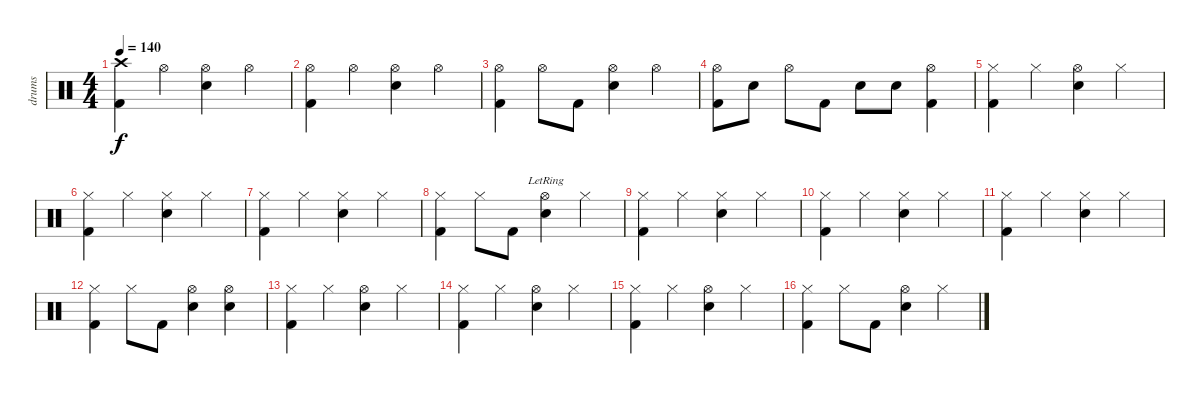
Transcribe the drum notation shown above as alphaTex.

\track ("drums" "drums") {instrument percussion}
\staff {score}
\articulation defaults
\ts (4 4)
\tempo 140
\clef neutral
\ks c
("Crash high (hit)" "Kick (hit) 2").4{dy f} "Hi-Hat (open)".4 ("Snare (hit) 2" "Hi-Hat (open)").4 "Hi-Hat (open)".4 |
("Hi-Hat (open)" "Kick (hit) 2").4 "Hi-Hat (open)".4 ("Snare (hit) 2" "Hi-Hat (open)").4 "Hi-Hat (open)".4 |
("Hi-Hat (open)" "Kick (hit) 2").4 "Hi-Hat (open)".8 "Kick (hit) 2".8 ("Snare (hit) 2" "Hi-Hat (open)").4 "Hi-Hat (open)".4 |
("Kick (hit) 2" "Hi-Hat (open)").8 "Snare (hit) 2".8 "Hi-Hat (open)".8 "Kick (hit) 2".8 "Snare (hit) 2".8 "Snare (hit) 2".8 ("Kick (hit) 2" "Hi-Hat (open)").4 |
("Hi-Hat (closed)" "Kick (hit) 2").4{volume 13} "Hi-Hat (closed)".4 ("Snare (hit) 2" "Hi-Hat (open)").4 "Hi-Hat (closed)".4 |
("Hi-Hat (closed)" "Kick (hit) 2").4 "Hi-Hat (closed)".4 ("Snare (hit) 2" "Hi-Hat (closed)").4 "Hi-Hat (closed)".4 |
("Hi-Hat (closed)" "Kick (hit) 2").4 "Hi-Hat (closed)".4 ("Snare (hit) 2" "Hi-Hat (closed)").4 "Hi-Hat (closed)".4 |
("Hi-Hat (closed)" "Kick (hit) 2").4 "Hi-Hat (closed)".8 "Kick (hit) 2".8 ("Snare (hit) 2" "Hi-Hat (open)"{lr}).4 "Hi-Hat (closed)".4 |
("Hi-Hat (closed)" "Kick (hit) 2").4 "Hi-Hat (closed)".4 ("Snare (hit) 2" "Hi-Hat (closed)").4 "Hi-Hat (closed)".4 |
("Hi-Hat (closed)" "Kick (hit) 2").4 "Hi-Hat (closed)".4 ("Snare (hit) 2" "Hi-Hat (closed)").4 "Hi-Hat (closed)".4 |
("Hi-Hat (closed)" "Kick (hit) 2").4 "Hi-Hat (closed)".4 ("Snare (hit) 2" "Hi-Hat (closed)").4 "Hi-Hat (closed)".4 |
("Hi-Hat (closed)" "Kick (hit) 2").4 "Hi-Hat (closed)".8 "Kick (hit) 2".8 ("Snare (hit) 2" "Hi-Hat (open)").4 ("Snare (hit) 2" "Hi-Hat (open)").4 |
("Hi-Hat (closed)" "Kick (hit) 2").4 "Hi-Hat (closed)".4 ("Snare (hit) 2" "Hi-Hat (open)").4 "Hi-Hat (closed)".4 |
("Hi-Hat (closed)" "Kick (hit) 2").4 "Hi-Hat (closed)".4 ("Snare (hit) 2" "Hi-Hat (open)").4 "Hi-Hat (closed)".4 |
("Hi-Hat (closed)" "Kick (hit) 2").4 "Hi-Hat (closed)".4 ("Snare (hit) 2" "Hi-Hat (open)").4 "Hi-Hat (closed)".4 |
("Hi-Hat (closed)" "Kick (hit) 2").4 "Hi-Hat (closed)".8 "Kick (hit) 2".8 ("Snare (hit) 2" "Hi-Hat (open)").4 "Hi-Hat (closed)".4
